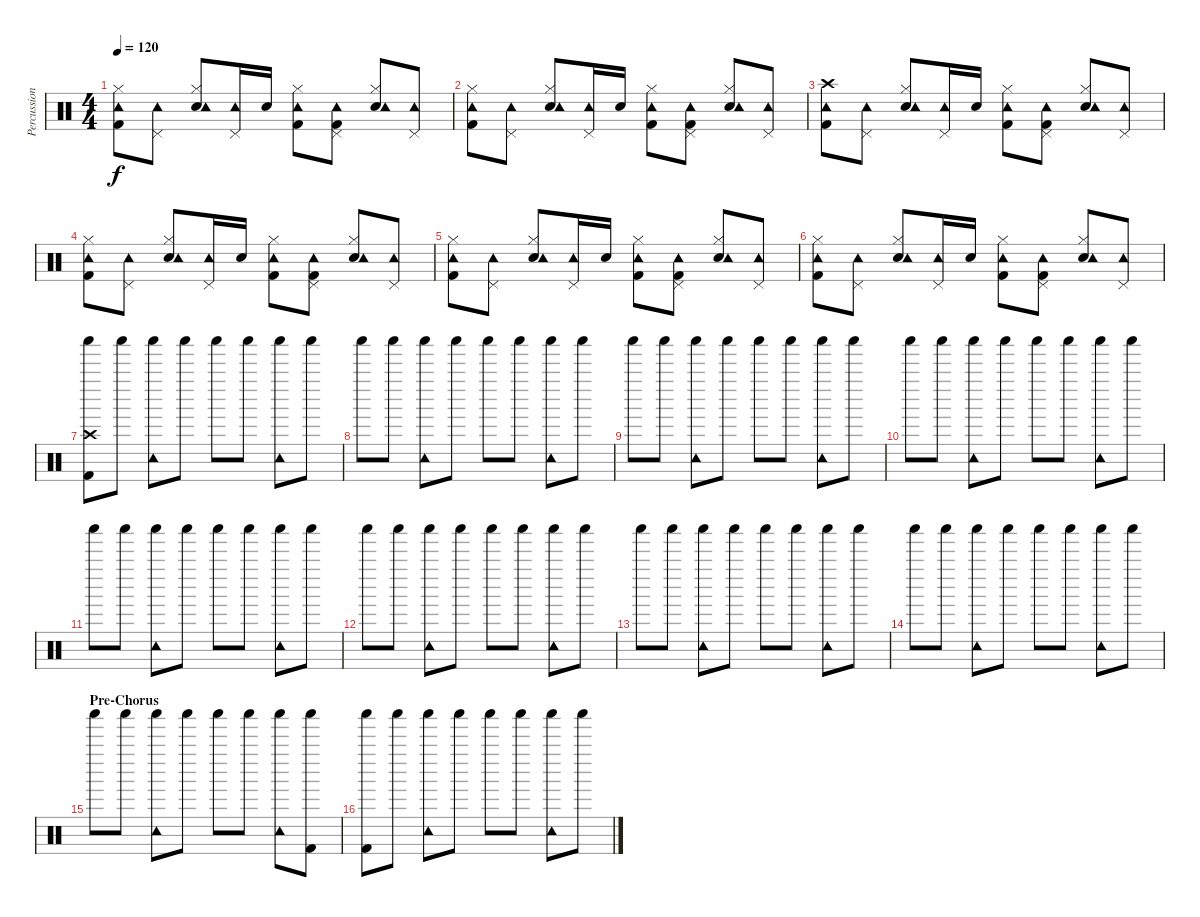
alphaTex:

\track ("Percussion" "Percussion") {instrument percussion}
\staff {score}
\articulation defaults
\ts (4 4)
\tempo 120
\clef neutral
\ks c
("Kick (hit) 2" "Tambourine (hit)" "Hi-Hat (closed)").8{dy f} ("Tambourine (hit)" "Pedal Hi-Hat (hit)").8 ("Electric Snare (hit)" "Tambourine (hit)" "Hi-Hat (closed)").8 ("Tambourine (hit)" "Pedal Hi-Hat (hit)").16 "Electric Snare (hit)".16 ("Kick (hit) 2" "Tambourine (hit)" "Hi-Hat (closed)").8 ("Kick (hit) 2" "Tambourine (hit)" "Pedal Hi-Hat (hit)").8 ("Electric Snare (hit)" "Tambourine (hit)" "Hi-Hat (closed)").8 ("Tambourine (hit)" "Pedal Hi-Hat (hit)").8 |
("Kick (hit) 2" "Tambourine (hit)" "Hi-Hat (closed)").8 ("Tambourine (hit)" "Pedal Hi-Hat (hit)").8 ("Electric Snare (hit)" "Tambourine (hit)" "Hi-Hat (closed)").8 ("Tambourine (hit)" "Pedal Hi-Hat (hit)").16 "Electric Snare (hit)".16 ("Kick (hit) 2" "Tambourine (hit)" "Hi-Hat (closed)").8 ("Kick (hit) 2" "Tambourine (hit)" "Pedal Hi-Hat (hit)").8 ("Electric Snare (hit)" "Tambourine (hit)" "Hi-Hat (closed)").8 ("Tambourine (hit)" "Pedal Hi-Hat (hit)").8 |
("Kick (hit) 2" "Tambourine (hit)" "Crash high (hit)").8 ("Tambourine (hit)" "Pedal Hi-Hat (hit)").8 ("Electric Snare (hit)" "Tambourine (hit)" "Hi-Hat (closed)").8 ("Tambourine (hit)" "Pedal Hi-Hat (hit)").16 "Electric Snare (hit)".16 ("Kick (hit) 2" "Tambourine (hit)" "Hi-Hat (closed)").8 ("Kick (hit) 2" "Tambourine (hit)" "Pedal Hi-Hat (hit)").8 ("Electric Snare (hit)" "Tambourine (hit)" "Hi-Hat (closed)").8 ("Tambourine (hit)" "Pedal Hi-Hat (hit)").8 |
("Kick (hit) 2" "Tambourine (hit)" "Hi-Hat (closed)").8 ("Tambourine (hit)" "Pedal Hi-Hat (hit)").8 ("Electric Snare (hit)" "Tambourine (hit)" "Hi-Hat (closed)").8 ("Tambourine (hit)" "Pedal Hi-Hat (hit)").16 "Electric Snare (hit)".16 ("Kick (hit) 2" "Tambourine (hit)" "Hi-Hat (closed)").8 ("Kick (hit) 2" "Tambourine (hit)" "Pedal Hi-Hat (hit)").8 ("Electric Snare (hit)" "Tambourine (hit)" "Hi-Hat (closed)").8 ("Tambourine (hit)" "Pedal Hi-Hat (hit)").8 |
("Kick (hit) 2" "Tambourine (hit)" "Hi-Hat (closed)").8 ("Tambourine (hit)" "Pedal Hi-Hat (hit)").8 ("Electric Snare (hit)" "Tambourine (hit)" "Hi-Hat (closed)").8 ("Tambourine (hit)" "Pedal Hi-Hat (hit)").16 "Electric Snare (hit)".16 ("Kick (hit) 2" "Tambourine (hit)" "Hi-Hat (closed)").8 ("Kick (hit) 2" "Tambourine (hit)" "Pedal Hi-Hat (hit)").8 ("Electric Snare (hit)" "Tambourine (hit)" "Hi-Hat (closed)").8 ("Tambourine (hit)" "Pedal Hi-Hat (hit)").8 |
("Kick (hit) 2" "Tambourine (hit)" "Hi-Hat (closed)").8 ("Tambourine (hit)" "Pedal Hi-Hat (hit)").8 ("Electric Snare (hit)" "Tambourine (hit)" "Hi-Hat (closed)").8 ("Tambourine (hit)" "Pedal Hi-Hat (hit)").16 "Electric Snare (hit)".16 ("Kick (hit) 2" "Tambourine (hit)" "Hi-Hat (closed)").8 ("Kick (hit) 2" "Tambourine (hit)" "Pedal Hi-Hat (hit)").8 ("Electric Snare (hit)" "Tambourine (hit)" "Hi-Hat (closed)").8 ("Tambourine (hit)" "Pedal Hi-Hat (hit)").8 |
("Kick (hit) 2" "Shaker (hit)" "Crash high (hit)").8 "Shaker (hit)".8 ("Shaker (hit)" "Tambourine (hit)").8 "Shaker (hit)".8 "Shaker (hit)".8 "Shaker (hit)".8 ("Shaker (hit)" "Tambourine (hit)").8 "Shaker (hit)".8 |
"Shaker (hit)".8 "Shaker (hit)".8 ("Shaker (hit)" "Tambourine (hit)").8 "Shaker (hit)".8 "Shaker (hit)".8 "Shaker (hit)".8 ("Shaker (hit)" "Tambourine (hit)").8 "Shaker (hit)".8 |
"Shaker (hit)".8 "Shaker (hit)".8 ("Shaker (hit)" "Tambourine (hit)").8 "Shaker (hit)".8 "Shaker (hit)".8 "Shaker (hit)".8 ("Shaker (hit)" "Tambourine (hit)").8 "Shaker (hit)".8 |
"Shaker (hit)".8 "Shaker (hit)".8 ("Shaker (hit)" "Tambourine (hit)").8 "Shaker (hit)".8 "Shaker (hit)".8 "Shaker (hit)".8 ("Shaker (hit)" "Tambourine (hit)").8 "Shaker (hit)".8 |
"Shaker (hit)".8 "Shaker (hit)".8 ("Shaker (hit)" "Tambourine (hit)").8 "Shaker (hit)".8 "Shaker (hit)".8 "Shaker (hit)".8 ("Shaker (hit)" "Tambourine (hit)").8 "Shaker (hit)".8 |
"Shaker (hit)".8 "Shaker (hit)".8 ("Shaker (hit)" "Tambourine (hit)").8 "Shaker (hit)".8 "Shaker (hit)".8 "Shaker (hit)".8 ("Shaker (hit)" "Tambourine (hit)").8 "Shaker (hit)".8 |
"Shaker (hit)".8 "Shaker (hit)".8 ("Shaker (hit)" "Tambourine (hit)").8 "Shaker (hit)".8 "Shaker (hit)".8 "Shaker (hit)".8 ("Shaker (hit)" "Tambourine (hit)").8 "Shaker (hit)".8 |
"Shaker (hit)".8 "Shaker (hit)".8 ("Shaker (hit)" "Tambourine (hit)").8 "Shaker (hit)".8 "Shaker (hit)".8 "Shaker (hit)".8 ("Shaker (hit)" "Tambourine (hit)").8 "Shaker (hit)".8 |
\section ("" "Pre-Chorus")
"Shaker (hit)".8 "Shaker (hit)".8 ("Shaker (hit)" "Tambourine (hit)").8 "Shaker (hit)".8 "Shaker (hit)".8 "Shaker (hit)".8 ("Shaker (hit)" "Tambourine (hit)").8 ("Kick (hit) 2" "Shaker (hit)").8 |
("Kick (hit) 2" "Shaker (hit)").8 "Shaker (hit)".8 ("Shaker (hit)" "Tambourine (hit)").8 "Shaker (hit)".8 "Shaker (hit)".8 "Shaker (hit)".8 ("Shaker (hit)" "Tambourine (hit)").8 "Shaker (hit)".8
